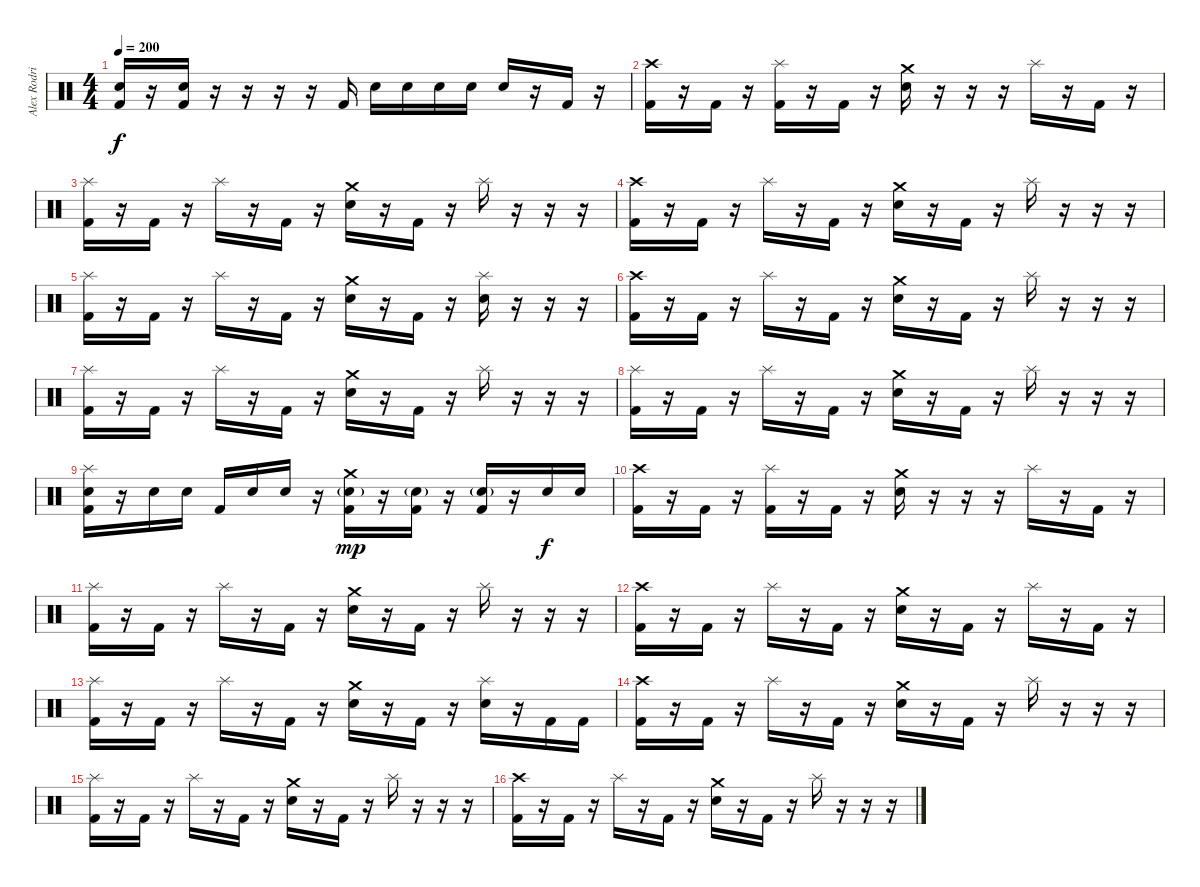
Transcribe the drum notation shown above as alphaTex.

\track ("Alex Rodriguez" "Alex Rodri") {instrument percussion}
\staff {score}
\articulation defaults
\ts (4 4)
\tempo 200
\clef neutral
\ks c
("Electric Snare (hit)" "Kick (hit) 2").16{dy f} r.16 ("Electric Snare (hit)" "Kick (hit) 2").16 r.16 r.16 r.16 r.16 "Kick (hit) 2".16 "Electric Snare (hit)".16 "Electric Snare (hit)".16 "Electric Snare (hit)".16 "Electric Snare (hit)".16 "Electric Snare (hit)".16 r.16 "Kick (hit) 2".16 r.16 |
("Crash high (hit)" "Kick (hit) 2").16 r.16 "Kick (hit) 2".16 r.16 ("Splash (hit)" "Kick (hit) 2").16 r.16 "Kick (hit) 2".16 r.16 ("Crash medium (hit)" "Electric Snare (hit)").16 r.16 r.16 r.16 "Splash (hit)".16 r.16 "Kick (hit) 2".16 r.16 |
("Splash (hit)" "Kick (hit) 2").16 r.16 "Kick (hit) 2".16 r.16 "Splash (hit)".16 r.16 "Kick (hit) 2".16 r.16 ("Crash medium (hit)" "Electric Snare (hit)").16 r.16 "Kick (hit) 2".16 r.16 "Splash (hit)".16 r.16 r.16 r.16 |
("Crash high (hit)" "Kick (hit) 2").16 r.16 "Kick (hit) 2".16 r.16 "Splash (hit)".16 r.16 "Kick (hit) 2".16 r.16 ("Crash medium (hit)" "Electric Snare (hit)").16 r.16 "Kick (hit) 2".16 r.16 "Splash (hit)".16 r.16 r.16 r.16 |
("Splash (hit)" "Kick (hit) 2").16 r.16 "Kick (hit) 2".16 r.16 "Splash (hit)".16 r.16 "Kick (hit) 2".16 r.16 ("Crash medium (hit)" "Electric Snare (hit)").16 r.16 "Kick (hit) 2".16 r.16 ("Splash (hit)" "Electric Snare (hit)").16 r.16 r.16 r.16 |
("Crash high (hit)" "Kick (hit) 2").16 r.16 "Kick (hit) 2".16 r.16 "Splash (hit)".16 r.16 "Kick (hit) 2".16 r.16 ("Crash medium (hit)" "Electric Snare (hit)").16 r.16 "Kick (hit) 2".16 r.16 "Splash (hit)".16 r.16 r.16 r.16 |
("Splash (hit)" "Kick (hit) 2").16 r.16 "Kick (hit) 2".16 r.16 "Splash (hit)".16 r.16 "Kick (hit) 2".16 r.16 ("Crash medium (hit)" "Electric Snare (hit)").16 r.16 "Kick (hit) 2".16 r.16 "Splash (hit)".16 r.16 r.16 r.16 |
("Splash (hit)" "Kick (hit) 2").16 r.16 "Kick (hit) 2".16 r.16 "Splash (hit)".16 r.16 "Kick (hit) 2".16 r.16 ("Crash medium (hit)" "Electric Snare (hit)").16 r.16 "Kick (hit) 2".16 r.16 "Splash (hit)".16 r.16 r.16 r.16 |
("Splash (hit)" "Electric Snare (hit)" "Kick (hit) 2").16 r.16 "Electric Snare (hit)".16 "Electric Snare (hit)".16 "Kick (hit) 2".16 "Electric Snare (hit)".16 "Electric Snare (hit)".16 r.16 ("Crash medium (hit)" "Electric Snare (hit)"{g} "Kick (hit) 2").16{dy mp} r.16 ("Electric Snare (hit)"{g} "Kick (hit) 2").16 r.16 ("Electric Snare (hit)"{g} "Kick (hit) 2").16 r.16 "Electric Snare (hit)".16{dy f} "Electric Snare (hit)".16 |
("Crash high (hit)" "Kick (hit) 2").16 r.16 "Kick (hit) 2".16 r.16 ("Splash (hit)" "Kick (hit) 2").16 r.16 "Kick (hit) 2".16 r.16 ("Crash medium (hit)" "Electric Snare (hit)").16 r.16 r.16 r.16 "Splash (hit)".16 r.16 "Kick (hit) 2".16 r.16 |
("Splash (hit)" "Kick (hit) 2").16 r.16 "Kick (hit) 2".16 r.16 "Splash (hit)".16 r.16 "Kick (hit) 2".16 r.16 ("Crash medium (hit)" "Electric Snare (hit)").16 r.16 "Kick (hit) 2".16 r.16 "Splash (hit)".16 r.16 r.16 r.16 |
("Crash high (hit)" "Kick (hit) 2").16 r.16 "Kick (hit) 2".16 r.16 "Splash (hit)".16 r.16 "Kick (hit) 2".16 r.16 ("Crash medium (hit)" "Electric Snare (hit)").16 r.16 "Kick (hit) 2".16 r.16 "Splash (hit)".16 r.16 "Kick (hit) 2".16 r.16 |
("Splash (hit)" "Kick (hit) 2").16 r.16 "Kick (hit) 2".16 r.16 "Splash (hit)".16 r.16 "Kick (hit) 2".16 r.16 ("Crash medium (hit)" "Electric Snare (hit)").16 r.16 "Kick (hit) 2".16 r.16 ("Splash (hit)" "Electric Snare (hit)").16 r.16 "Kick (hit) 2".16 "Kick (hit) 2".16 |
("Crash high (hit)" "Kick (hit) 2").16 r.16 "Kick (hit) 2".16 r.16 "Splash (hit)".16 r.16 "Kick (hit) 2".16 r.16 ("Crash medium (hit)" "Electric Snare (hit)").16 r.16 "Kick (hit) 2".16 r.16 "Splash (hit)".16 r.16 r.16 r.16 |
("Splash (hit)" "Kick (hit) 2").16 r.16 "Kick (hit) 2".16 r.16 "Splash (hit)".16 r.16 "Kick (hit) 2".16 r.16 ("Crash medium (hit)" "Electric Snare (hit)").16 r.16 "Kick (hit) 2".16 r.16 "Splash (hit)".16 r.16 r.16 r.16 |
("Crash high (hit)" "Kick (hit) 2").16 r.16 "Kick (hit) 2".16 r.16 "Splash (hit)".16 r.16 "Kick (hit) 2".16 r.16 ("Crash medium (hit)" "Electric Snare (hit)").16 r.16 "Kick (hit) 2".16 r.16 "Splash (hit)".16 r.16 r.16 r.16
